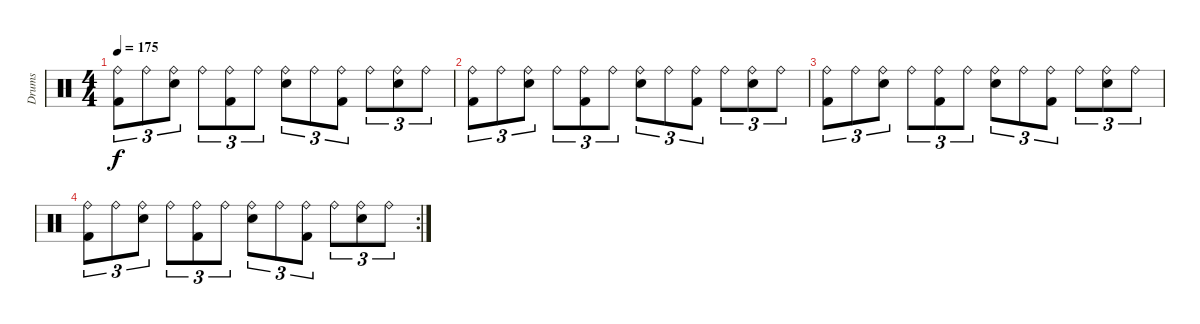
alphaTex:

\track ("Drums" "Drums") {instrument percussion}
\staff {score}
\articulation defaults
\ts (4 4)
\tempo 175
\clef neutral
\ks c
("Kick (hit) 2" "Ride (bell)").8{tu (3 2) dy f} "Ride (bell)".8{tu (3 2)} ("Snare (hit) 2" "Ride (bell)").8{tu (3 2)} "Ride (bell)".8{tu (3 2)} ("Kick (hit) 2" "Ride (bell)").8{tu (3 2)} "Ride (bell)".8{tu (3 2)} ("Snare (hit) 2" "Ride (bell)").8{tu (3 2)} "Ride (bell)".8{tu (3 2)} ("Kick (hit) 2" "Ride (bell)").8{tu (3 2)} "Ride (bell)".8{tu (3 2)} ("Snare (hit) 2" "Ride (bell)").8{tu (3 2)} "Ride (bell)".8{tu (3 2)} |
("Kick (hit) 2" "Ride (bell)").8{tu (3 2)} "Ride (bell)".8{tu (3 2)} ("Snare (hit) 2" "Ride (bell)").8{tu (3 2)} "Ride (bell)".8{tu (3 2)} ("Kick (hit) 2" "Ride (bell)").8{tu (3 2)} "Ride (bell)".8{tu (3 2)} ("Snare (hit) 2" "Ride (bell)").8{tu (3 2)} "Ride (bell)".8{tu (3 2)} ("Kick (hit) 2" "Ride (bell)").8{tu (3 2)} "Ride (bell)".8{tu (3 2)} ("Snare (hit) 2" "Ride (bell)").8{tu (3 2)} "Ride (bell)".8{tu (3 2)} |
("Kick (hit) 2" "Ride (bell)").8{tu (3 2)} "Ride (bell)".8{tu (3 2)} ("Snare (hit) 2" "Ride (bell)").8{tu (3 2)} "Ride (bell)".8{tu (3 2)} ("Kick (hit) 2" "Ride (bell)").8{tu (3 2)} "Ride (bell)".8{tu (3 2)} ("Snare (hit) 2" "Ride (bell)").8{tu (3 2)} "Ride (bell)".8{tu (3 2)} ("Kick (hit) 2" "Ride (bell)").8{tu (3 2)} "Ride (bell)".8{tu (3 2)} ("Snare (hit) 2" "Ride (bell)").8{tu (3 2)} "Ride (bell)".8{tu (3 2)} |
\rc 2
("Kick (hit) 2" "Ride (bell)").8{tu (3 2)} "Ride (bell)".8{tu (3 2)} ("Snare (hit) 2" "Ride (bell)").8{tu (3 2)} "Ride (bell)".8{tu (3 2)} ("Kick (hit) 2" "Ride (bell)").8{tu (3 2)} "Ride (bell)".8{tu (3 2)} ("Snare (hit) 2" "Ride (bell)").8{tu (3 2)} "Ride (bell)".8{tu (3 2)} ("Kick (hit) 2" "Ride (bell)").8{tu (3 2)} "Ride (bell)".8{tu (3 2)} ("Snare (hit) 2" "Ride (bell)").8{tu (3 2)} "Ride (bell)".8{tu (3 2)}
